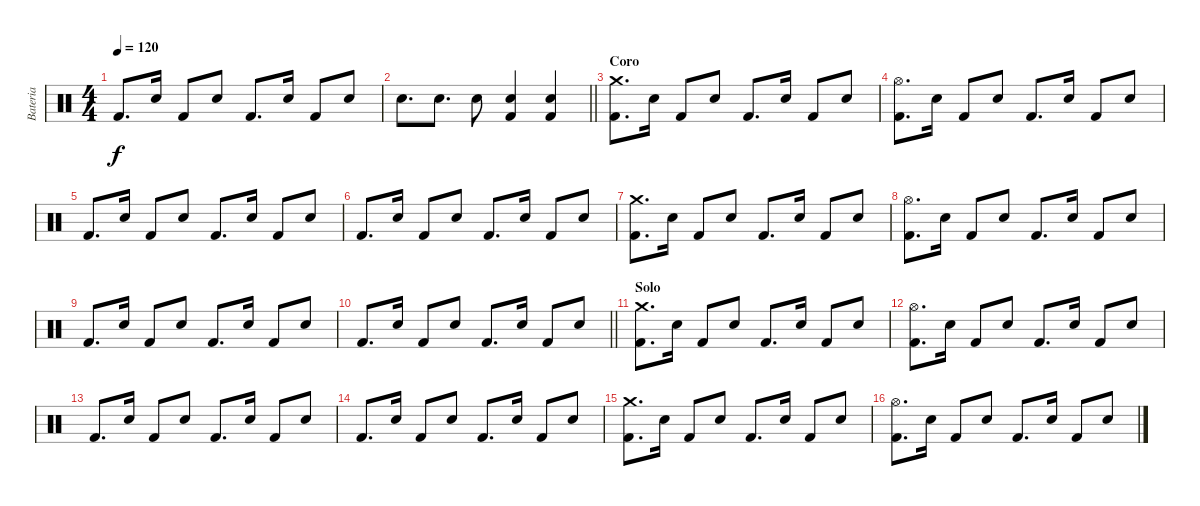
\track ("Bateria" "Bateria") {instrument percussion}
\staff {score}
\articulation defaults
\ts (4 4)
\tempo 120
\clef neutral
\ks c "Kick (hit) 2".8{d dy f} "Snare (hit) 2".16 "Kick (hit) 2".8 "Snare (hit) 2".8 "Kick (hit) 2".8{d} "Snare (hit) 2".16 "Kick (hit) 2".8 "Snare (hit) 2".8
|
\barLineRight lightlight "Snare (hit) 2".8{d} "Snare (hit) 2".8{d} "Snare (hit) 2".8
("Snare (hit) 2" "Kick (hit) 2").4 ("Snare (hit) 2" "Kick (hit) 2").4 |
\section ("" "Coro")
("Crash medium (hit)" "Kick (hit) 2").8{d} "Snare (hit) 2".16 "Kick (hit) 2".8 "Snare (hit) 2".8 "Kick (hit) 2".8{d} "Snare (hit) 2".16 "Kick (hit) 2".8 "Snare (hit) 2".8 |
("Hi-Hat (open)" "Kick (hit) 2").8{d} "Snare (hit) 2".16 "Kick (hit) 2".8 "Snare (hit) 2".8 "Kick (hit) 2".8{d} "Snare (hit) 2".16 "Kick (hit) 2".8 "Snare (hit) 2".8 |
"Kick (hit) 2".8{d} "Snare (hit) 2".16 "Kick (hit) 2".8 "Snare (hit) 2".8 "Kick (hit) 2".8{d} "Snare (hit) 2".16 "Kick (hit) 2".8 "Snare (hit) 2".8 |
"Kick (hit) 2".8{d} "Snare (hit) 2".16 "Kick (hit) 2".8 "Snare (hit) 2".8 "Kick (hit) 2".8{d} "Snare (hit) 2".16 "Kick (hit) 2".8 "Snare (hit) 2".8 |
("Crash medium (hit)" "Kick (hit) 2").8{d} "Snare (hit) 2".16 "Kick (hit) 2".8 "Snare (hit) 2".8 "Kick (hit) 2".8{d} "Snare (hit) 2".16 "Kick (hit) 2".8 "Snare (hit) 2".8 |
("Hi-Hat (open)" "Kick (hit) 2").8{d} "Snare (hit) 2".16 "Kick (hit) 2".8 "Snare (hit) 2".8 "Kick (hit) 2".8{d} "Snare (hit) 2".16 "Kick (hit) 2".8 "Snare (hit) 2".8 |
"Kick (hit) 2".8{d} "Snare (hit) 2".16 "Kick (hit) 2".8 "Snare (hit) 2".8 "Kick (hit) 2".8{d} "Snare (hit) 2".16 "Kick (hit) 2".8 "Snare (hit) 2".8 |
\barLineRight lightlight "Kick (hit) 2".8{d} "Snare (hit) 2".16 "Kick (hit) 2".8 "Snare (hit) 2".8 "Kick (hit) 2".8{d} "Snare (hit) 2".16 "Kick (hit) 2".8 "Snare (hit) 2".8
|
\section ("" "Solo")
("Crash medium (hit)" "Kick (hit) 2").8{d} "Snare (hit) 2".16 "Kick (hit) 2".8 "Snare (hit) 2".8 "Kick (hit) 2".8{d} "Snare (hit) 2".16 "Kick (hit) 2".8 "Snare (hit) 2".8 |
("Hi-Hat (open)" "Kick (hit) 2").8{d} "Snare (hit) 2".16 "Kick (hit) 2".8 "Snare (hit) 2".8 "Kick (hit) 2".8{d} "Snare (hit) 2".16 "Kick (hit) 2".8 "Snare (hit) 2".8 |
"Kick (hit) 2".8{d} "Snare (hit) 2".16 "Kick (hit) 2".8 "Snare (hit) 2".8 "Kick (hit) 2".8{d} "Snare (hit) 2".16 "Kick (hit) 2".8 "Snare (hit) 2".8 |
"Kick (hit) 2".8{d} "Snare (hit) 2".16 "Kick (hit) 2".8 "Snare (hit) 2".8 "Kick (hit) 2".8{d} "Snare (hit) 2".16 "Kick (hit) 2".8 "Snare (hit) 2".8 |
("Crash medium (hit)" "Kick (hit) 2").8{d} "Snare (hit) 2".16 "Kick (hit) 2".8 "Snare (hit) 2".8 "Kick (hit) 2".8{d} "Snare (hit) 2".16 "Kick (hit) 2".8 "Snare (hit) 2".8 |
("Hi-Hat (open)" "Kick (hit) 2").8{d} "Snare (hit) 2".16 "Kick (hit) 2".8 "Snare (hit) 2".8 "Kick (hit) 2".8{d} "Snare (hit) 2".16 "Kick (hit) 2".8 "Snare (hit) 2".8
